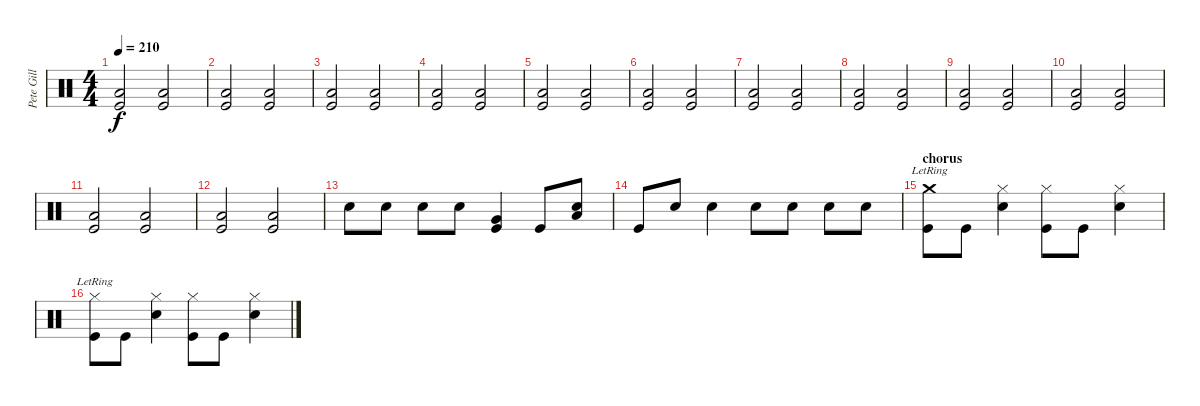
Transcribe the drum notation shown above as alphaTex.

\track ("Pete Gill" "Pete Gill") {instrument percussion}
\staff {score}
\articulation defaults
\ts (4 4)
\tempo 210
\clef neutral
\ks c
("Low Floor Tom (hit)" "Kick (hit)").2{dy f} ("Low Floor Tom (hit)" "Kick (hit)").2 |
("Low Floor Tom (hit)" "Kick (hit)").2 ("Low Floor Tom (hit)" "Kick (hit)").2 |
("Low Floor Tom (hit)" "Kick (hit)").2 ("Low Floor Tom (hit)" "Kick (hit)").2 |
("Low Floor Tom (hit)" "Kick (hit)").2 ("Low Floor Tom (hit)" "Kick (hit)").2 |
("Low Floor Tom (hit)" "Kick (hit)").2 ("Low Floor Tom (hit)" "Kick (hit)").2 |
("Low Floor Tom (hit)" "Kick (hit)").2 ("Low Floor Tom (hit)" "Kick (hit)").2 |
("Low Floor Tom (hit)" "Kick (hit)").2 ("Low Floor Tom (hit)" "Kick (hit)").2 |
("Low Floor Tom (hit)" "Kick (hit)").2 ("Low Floor Tom (hit)" "Kick (hit)").2 |
("Low Floor Tom (hit)" "Kick (hit)").2 ("Low Floor Tom (hit)" "Kick (hit)").2 |
("Low Floor Tom (hit)" "Kick (hit)").2 ("Low Floor Tom (hit)" "Kick (hit)").2 |
("Low Floor Tom (hit)" "Kick (hit)").2 ("Low Floor Tom (hit)" "Kick (hit)").2 |
("Low Floor Tom (hit)" "Kick (hit)").2 ("Low Floor Tom (hit)" "Kick (hit)").2 |
"Snare (hit) 2".8 "Snare (hit) 2".8 "Snare (hit) 2".8 "Snare (hit) 2".8 ("Very Low Tom (hit)" "Kick (hit)").4 "Kick (hit)".8 ("Low Floor Tom (hit)" "Snare (hit) 2").8 |
"Kick (hit)".8 "Snare (hit) 2".8 "Snare (hit) 2".4 "Snare (hit) 2".8 "Snare (hit) 2".8 "Snare (hit) 2".8 "Snare (hit) 2".8 |
\section ("" "chorus")
("Crash medium (hit)"{lr} "Kick (hit)").8 "Kick (hit)".8 ("Hi-Hat (closed)" "Snare (hit) 2").4 ("Hi-Hat (closed)" "Kick (hit)").8 "Kick (hit)".8 ("Hi-Hat (closed)" "Snare (hit) 2").4 |
("Hi-Hat (closed)"{lr} "Kick (hit)").8 "Kick (hit)".8 ("Hi-Hat (closed)" "Snare (hit) 2").4 ("Hi-Hat (closed)" "Kick (hit)").8 "Kick (hit)".8 ("Hi-Hat (closed)" "Snare (hit) 2").4
